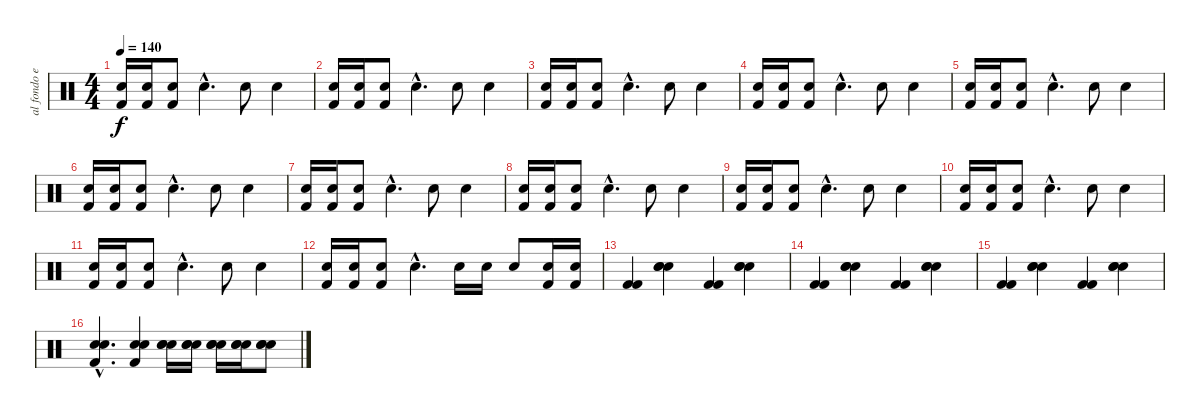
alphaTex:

\track ("al fondo en la bateria Mr Pedro Andreu" "al fondo e") {instrument percussion}
\staff {score}
\articulation defaults
\ts (4 4)
\tempo 140
\clef neutral
\ks c
("Kick (hit) 2" "Snare (hit) 2").16{dy f} ("Kick (hit) 2" "Snare (hit) 2").16 ("Kick (hit) 2" "Snare (hit) 2").8 "Snare (hit) 2"{hac}.4{d} "Snare (hit) 2".8 "Snare (hit) 2".4 |
("Kick (hit) 2" "Snare (hit) 2").16 ("Kick (hit) 2" "Snare (hit) 2").16 ("Kick (hit) 2" "Snare (hit) 2").8 "Snare (hit) 2"{hac}.4{d} "Snare (hit) 2".8 "Snare (hit) 2".4 |
("Kick (hit) 2" "Snare (hit) 2").16 ("Kick (hit) 2" "Snare (hit) 2").16 ("Kick (hit) 2" "Snare (hit) 2").8 "Snare (hit) 2"{hac}.4{d} "Snare (hit) 2".8 "Snare (hit) 2".4 |
("Kick (hit) 2" "Snare (hit) 2").16 ("Kick (hit) 2" "Snare (hit) 2").16 ("Kick (hit) 2" "Snare (hit) 2").8 "Snare (hit) 2"{hac}.4{d} "Snare (hit) 2".8 "Snare (hit) 2".4 |
("Kick (hit) 2" "Snare (hit) 2").16 ("Kick (hit) 2" "Snare (hit) 2").16 ("Kick (hit) 2" "Snare (hit) 2").8 "Snare (hit) 2"{hac}.4{d} "Snare (hit) 2".8 "Snare (hit) 2".4 |
("Kick (hit) 2" "Snare (hit) 2").16 ("Kick (hit) 2" "Snare (hit) 2").16 ("Kick (hit) 2" "Snare (hit) 2").8 "Snare (hit) 2"{hac}.4{d} "Snare (hit) 2".8 "Snare (hit) 2".4 |
("Kick (hit) 2" "Snare (hit) 2").16 ("Kick (hit) 2" "Snare (hit) 2").16 ("Kick (hit) 2" "Snare (hit) 2").8 "Snare (hit) 2"{hac}.4{d} "Snare (hit) 2".8 "Snare (hit) 2".4 |
("Kick (hit) 2" "Snare (hit) 2").16 ("Kick (hit) 2" "Snare (hit) 2").16 ("Kick (hit) 2" "Snare (hit) 2").8 "Snare (hit) 2"{hac}.4{d} "Snare (hit) 2".8 "Snare (hit) 2".4 |
("Kick (hit) 2" "Snare (hit) 2").16 ("Kick (hit) 2" "Snare (hit) 2").16 ("Kick (hit) 2" "Snare (hit) 2").8 "Snare (hit) 2"{hac}.4{d} "Snare (hit) 2".8 "Snare (hit) 2".4 |
("Kick (hit) 2" "Snare (hit) 2").16 ("Kick (hit) 2" "Snare (hit) 2").16 ("Kick (hit) 2" "Snare (hit) 2").8 "Snare (hit) 2"{hac}.4{d} "Snare (hit) 2".8 "Snare (hit) 2".4 |
("Kick (hit) 2" "Snare (hit) 2").16 ("Kick (hit) 2" "Snare (hit) 2").16 ("Kick (hit) 2" "Snare (hit) 2").8 "Snare (hit) 2"{hac}.4{d} "Snare (hit) 2".8 "Snare (hit) 2".4 |
("Kick (hit) 2" "Snare (hit) 2").16 ("Kick (hit) 2" "Snare (hit) 2").16 ("Kick (hit) 2" "Snare (hit) 2").8 "Snare (hit) 2"{hac}.4{d} "Snare (hit) 2".16 "Snare (hit) 2".16 "Snare (hit) 2".8 ("Kick (hit) 2" "Snare (hit) 2").16 ("Kick (hit) 2" "Snare (hit) 2").16 |
("Kick (hit) 2" "Kick (hit) 2").4 ("Snare (hit) 2" "Snare (hit) 2" "Snare (hit) 2").4 ("Kick (hit) 2" "Kick (hit) 2").4 ("Snare (hit) 2" "Snare (hit) 2" "Snare (hit) 2").4 |
("Kick (hit) 2" "Kick (hit) 2").4 ("Snare (hit) 2" "Snare (hit) 2" "Snare (hit) 2").4 ("Kick (hit) 2" "Kick (hit) 2").4 ("Snare (hit) 2" "Snare (hit) 2" "Snare (hit) 2").4 |
("Kick (hit) 2" "Kick (hit) 2").4 ("Snare (hit) 2" "Snare (hit) 2" "Snare (hit) 2").4 ("Kick (hit) 2" "Kick (hit) 2").4 ("Snare (hit) 2" "Snare (hit) 2" "Snare (hit) 2").4 |
("Snare (hit) 2"{hac} "Snare (hit) 2"{hac} "Kick (hit) 2"{hac}).4{d} ("Snare (hit) 2" "Snare (hit) 2" "Kick (hit) 2").4 ("Snare (hit) 2" "Snare (hit) 2" "Snare (hit) 2").16 ("Snare (hit) 2" "Snare (hit) 2" "Snare (hit) 2").16 ("Snare (hit) 2" "Snare (hit) 2" "Snare (hit) 2").16 ("Snare (hit) 2" "Snare (hit) 2" "Snare (hit) 2").16 ("Snare (hit) 2" "Snare (hit) 2" "Snare (hit) 2").8
